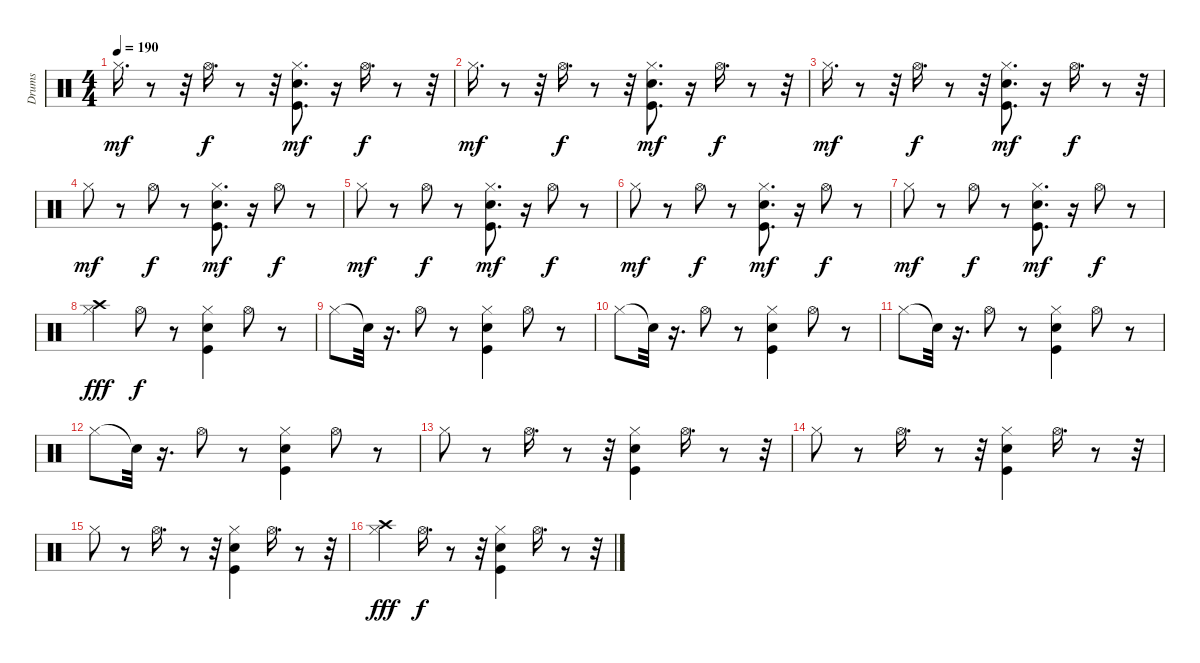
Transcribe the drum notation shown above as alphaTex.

\track ("Drums" "Drums") {instrument percussion}
\staff {score}
\articulation defaults
\ts (4 4)
\tempo 190
\clef neutral
\ks c "Hi-Hat (closed)".16{d dy mf}
r.8 r.32 "Hi-Hat (open)".16{d dy f} r.8 r.32 ("Kick (hit)" "Snare (hit) 2" "Hi-Hat (closed)").8{d dy mf} r.16 "Hi-Hat (open)".16{d dy f} r.8 r.32 |
"Hi-Hat (closed)".16{d dy mf} r.8 r.32 "Hi-Hat (open)".16{d dy f} r.8 r.32 ("Kick (hit)" "Snare (hit) 2" "Hi-Hat (closed)").8{d dy mf} r.16 "Hi-Hat (open)".16{d dy f} r.8 r.32 |
"Hi-Hat (closed)".16{d dy mf} r.8 r.32 "Hi-Hat (open)".16{d dy f} r.8 r.32 ("Kick (hit)" "Snare (hit) 2" "Hi-Hat (closed)").8{d dy mf} r.16 "Hi-Hat (open)".16{d dy f} r.8 r.32 |
"Hi-Hat (closed)".8{dy mf} r.8 "Hi-Hat (open)".8{dy f} r.8 ("Kick (hit)" "Snare (hit) 2" "Hi-Hat (closed)").8{d dy mf} r.16 "Hi-Hat (open)".8{dy f} r.8 |
"Hi-Hat (closed)".8{dy mf} r.8 "Hi-Hat (open)".8{dy f} r.8 ("Kick (hit)" "Snare (hit) 2" "Hi-Hat (closed)").8{d dy mf} r.16 "Hi-Hat (open)".8{dy f} r.8 |
"Hi-Hat (closed)".8{dy mf} r.8 "Hi-Hat (open)".8{dy f} r.8 ("Kick (hit)" "Snare (hit) 2" "Hi-Hat (closed)").8{d dy mf} r.16 "Hi-Hat (open)".8{dy f} r.8 |
"Hi-Hat (closed)".8{dy mf} r.8 "Hi-Hat (open)".8{dy f} r.8 ("Kick (hit)" "Snare (hit) 2" "Hi-Hat (closed)").8{d dy mf} r.16 "Hi-Hat (open)".8{dy f} r.8 |
("Crash high (hit)" "Hi-Hat (closed)").4{dy fff} "Hi-Hat (open)".8{dy f} r.8 ("Kick (hit)" "Snare (hit) 2" "Hi-Hat (closed)").4 "Hi-Hat (open)".8 r.8 |
"Hi-Hat (closed)".8 "Snare (hit)"{t}.32 r.16{d} "Hi-Hat (open)".8 r.8 ("Kick (hit)" "Snare (hit) 2" "Hi-Hat (closed)").4 "Hi-Hat (open)".8 r.8 |
"Hi-Hat (closed)".8 "Snare (hit)"{t}.32 r.16{d} "Hi-Hat (open)".8 r.8 ("Kick (hit)" "Snare (hit) 2" "Hi-Hat (closed)").4 "Hi-Hat (open)".8 r.8 |
"Hi-Hat (closed)".8 "Snare (hit)"{t}.32 r.16{d} "Hi-Hat (open)".8 r.8 ("Kick (hit)" "Snare (hit) 2" "Hi-Hat (closed)").4 "Hi-Hat (open)".8 r.8 |
"Hi-Hat (closed)".8 "Snare (hit)"{t}.32 r.16{d} "Hi-Hat (open)".8 r.8 ("Kick (hit)" "Snare (hit) 2" "Hi-Hat (closed)").4 "Hi-Hat (open)".8 r.8 |
"Hi-Hat (closed)".8 r.8 "Hi-Hat (open)".16{d} r.8 r.32 ("Kick (hit)" "Snare (hit) 2" "Hi-Hat (closed)").4 "Hi-Hat (open)".16{d} r.8 r.32 |
"Hi-Hat (closed)".8 r.8 "Hi-Hat (open)".16{d} r.8 r.32 ("Kick (hit)" "Snare (hit) 2" "Hi-Hat (closed)").4 "Hi-Hat (open)".16{d} r.8 r.32 |
"Hi-Hat (closed)".8 r.8 "Hi-Hat (open)".16{d} r.8 r.32 ("Kick (hit)" "Snare (hit) 2" "Hi-Hat (closed)").4 "Hi-Hat (open)".16{d} r.8 r.32 |
("Crash high (hit)" "Hi-Hat (closed)").4{dy fff} "Hi-Hat (open)".16{d dy f} r.8 r.32 ("Kick (hit)" "Snare (hit) 2" "Hi-Hat (closed)").4 "Hi-Hat (open)".16{d} r.8 r.32
